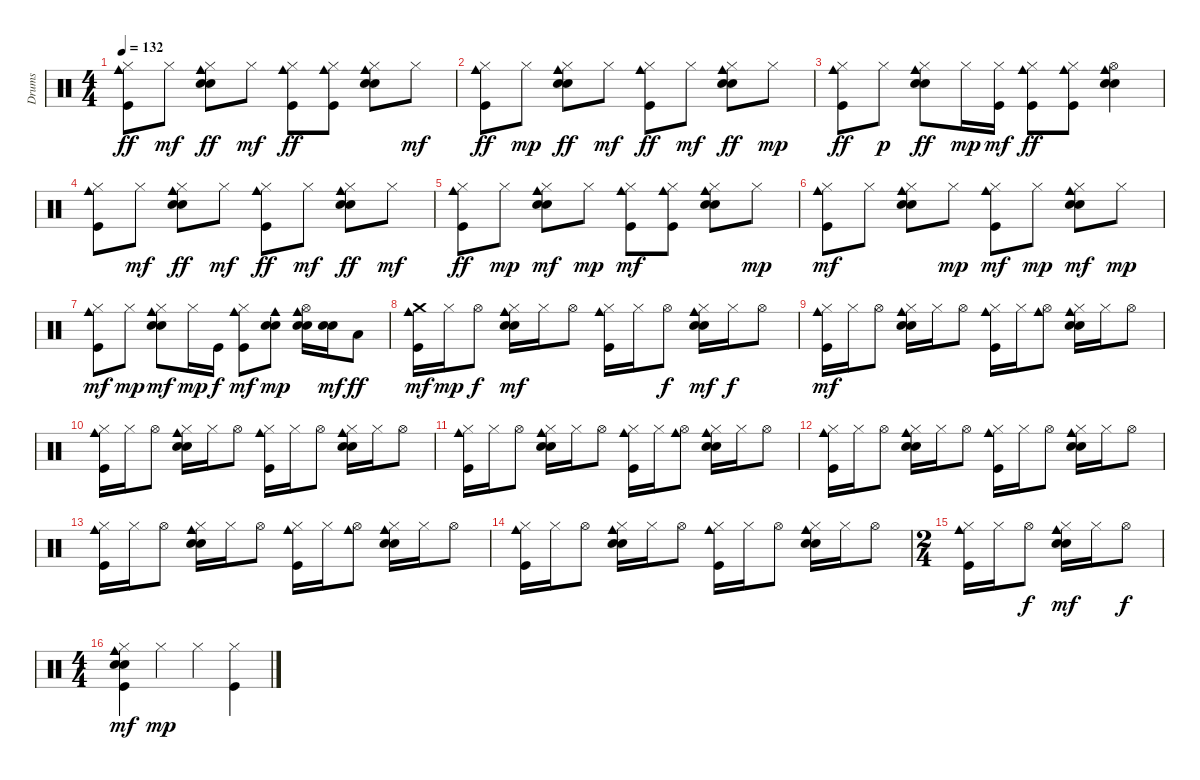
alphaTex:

\track ("Drums" "Drums") {instrument percussion}
\staff {score}
\articulation defaults
\ts (4 4)
\tempo 132
\clef neutral
\ks c
("Hi-Hat (closed)" "Kick (hit)" "Cowbell medium (hit)").8{dy ff} "Hi-Hat (closed)".8{dy mf} ("Hi-Hat (closed)" "Electric Snare (hit)" "Snare (hit) 2" "Cowbell medium (hit)").8{dy ff} "Hi-Hat (closed)".8{dy mf} ("Hi-Hat (closed)" "Kick (hit)" "Cowbell medium (hit)").8{dy ff} ("Hi-Hat (closed)" "Kick (hit)" "Cowbell medium (hit)").8 ("Hi-Hat (closed)" "Electric Snare (hit)" "Snare (hit) 2" "Cowbell medium (hit)").8 "Hi-Hat (closed)".8{dy mf} |
("Hi-Hat (closed)" "Kick (hit)" "Cowbell medium (hit)").8{dy ff} "Hi-Hat (closed)".8{dy mp} ("Hi-Hat (closed)" "Electric Snare (hit)" "Snare (hit) 2" "Cowbell medium (hit)").8{dy ff} "Hi-Hat (closed)".8{dy mf} ("Hi-Hat (closed)" "Kick (hit)" "Cowbell medium (hit)").8{dy ff} "Hi-Hat (closed)".8{dy mf} ("Hi-Hat (closed)" "Electric Snare (hit)" "Snare (hit) 2" "Cowbell medium (hit)").8{dy ff} "Hi-Hat (closed)".8{dy mp} |
("Hi-Hat (closed)" "Kick (hit)" "Cowbell medium (hit)").8{dy ff} "Hi-Hat (closed)".8{dy p} ("Hi-Hat (closed)" "Electric Snare (hit)" "Snare (hit) 2" "Cowbell medium (hit)").8{dy ff} "Hi-Hat (closed)".16{dy mp} ("Hi-Hat (closed)" "Kick (hit)").16{dy mf} ("Hi-Hat (closed)" "Kick (hit)" "Cowbell medium (hit)").8{dy ff} ("Hi-Hat (closed)" "Kick (hit)" "Cowbell medium (hit)").8 ("Electric Snare (hit)" "Snare (hit) 2" "Cowbell medium (hit)" "Hi-Hat (open)").4 |
("Hi-Hat (closed)" "Kick (hit)" "Cowbell medium (hit)").8 "Hi-Hat (closed)".8{dy mf} ("Hi-Hat (closed)" "Electric Snare (hit)" "Snare (hit) 2" "Cowbell medium (hit)").8{dy ff} "Hi-Hat (closed)".8{dy mf} ("Hi-Hat (closed)" "Kick (hit)" "Cowbell medium (hit)").8{dy ff} "Hi-Hat (closed)".8{dy mf} ("Hi-Hat (closed)" "Electric Snare (hit)" "Snare (hit) 2" "Cowbell medium (hit)").8{dy ff} "Hi-Hat (closed)".8{dy mf} |
("Hi-Hat (closed)" "Kick (hit)" "Cowbell medium (hit)").8{dy ff} "Hi-Hat (closed)".8{dy mp} ("Hi-Hat (closed)" "Electric Snare (hit)" "Snare (hit) 2" "Cowbell medium (hit)").8{dy mf} "Hi-Hat (closed)".8{dy mp} ("Hi-Hat (closed)" "Kick (hit)" "Cowbell medium (hit)").8{dy mf} ("Hi-Hat (closed)" "Kick (hit)" "Cowbell medium (hit)").8 ("Hi-Hat (closed)" "Electric Snare (hit)" "Snare (hit) 2" "Cowbell medium (hit)").8 "Hi-Hat (closed)".8{dy mp} |
("Hi-Hat (closed)" "Kick (hit)" "Cowbell medium (hit)").8{dy mf} "Hi-Hat (closed)".8 ("Hi-Hat (closed)" "Electric Snare (hit)" "Snare (hit) 2" "Cowbell medium (hit)").8 "Hi-Hat (closed)".8{dy mp} ("Hi-Hat (closed)" "Kick (hit)" "Cowbell medium (hit)").8{dy mf} "Hi-Hat (closed)".8{dy mp} ("Hi-Hat (closed)" "Electric Snare (hit)" "Snare (hit) 2" "Cowbell medium (hit)").8{dy mf} "Hi-Hat (closed)".8{dy mp} |
("Hi-Hat (closed)" "Kick (hit)" "Cowbell medium (hit)").8{dy mf} "Hi-Hat (closed)".8{dy mp} ("Hi-Hat (closed)" "Electric Snare (hit)" "Snare (hit) 2" "Cowbell medium (hit)").8{dy mf} "Hi-Hat (closed)".16{dy mp} "Kick (hit)".16{dy f} ("Hi-Hat (closed)" "Kick (hit)" "Cowbell medium (hit)").8{dy mf} ("Electric Snare (hit)" "Snare (hit) 2" "Cowbell medium (hit)").8{dy mp} ("Electric Snare (hit)" "Snare (hit) 2" "Cowbell medium (hit)" "Hi-Hat (open)").16 ("Electric Snare (hit)" "Snare (hit) 2").16{dy mf} "Low Tom (hit)".8{dy ff} |
("Kick (hit)" "Cowbell medium (hit)" "Crash medium (hit)").16{dy mf} "Hi-Hat (closed)".16{dy mp} "Hi-Hat (open)".8{dy f} ("Hi-Hat (closed)" "Electric Snare (hit)" "Snare (hit) 2" "Cowbell medium (hit)").16{dy mf} "Hi-Hat (closed)".16 "Hi-Hat (open)".8 ("Hi-Hat (closed)" "Kick (hit)" "Cowbell medium (hit)").16 "Hi-Hat (closed)".16 "Hi-Hat (open)".8{dy f} ("Hi-Hat (closed)" "Electric Snare (hit)" "Snare (hit) 2" "Cowbell medium (hit)").16{dy mf} "Hi-Hat (closed)".16{dy f} "Hi-Hat (open)".8 |
("Hi-Hat (closed)" "Kick (hit)" "Cowbell medium (hit)").16{dy mf} "Hi-Hat (closed)".16 "Hi-Hat (open)".8 ("Hi-Hat (closed)" "Electric Snare (hit)" "Snare (hit) 2" "Cowbell medium (hit)").16 "Hi-Hat (closed)".16 "Hi-Hat (open)".8 ("Hi-Hat (closed)" "Kick (hit)" "Cowbell medium (hit)").16 "Hi-Hat (closed)".16 ("Hi-Hat (open)" "Cowbell medium (hit)").8 ("Hi-Hat (closed)" "Electric Snare (hit)" "Snare (hit) 2" "Cowbell medium (hit)").16 "Hi-Hat (closed)".16 "Hi-Hat (open)".8 |
("Hi-Hat (closed)" "Kick (hit)" "Cowbell medium (hit)").16 "Hi-Hat (closed)".16 "Hi-Hat (open)".8 ("Hi-Hat (closed)" "Electric Snare (hit)" "Snare (hit) 2" "Cowbell medium (hit)").16 "Hi-Hat (closed)".16 "Hi-Hat (open)".8 ("Hi-Hat (closed)" "Kick (hit)" "Cowbell medium (hit)").16 "Hi-Hat (closed)".16 "Hi-Hat (open)".8 ("Hi-Hat (closed)" "Electric Snare (hit)" "Snare (hit) 2" "Cowbell medium (hit)").16 "Hi-Hat (closed)".16 "Hi-Hat (open)".8 |
("Hi-Hat (closed)" "Kick (hit)" "Cowbell medium (hit)").16 "Hi-Hat (closed)".16 "Hi-Hat (open)".8 ("Hi-Hat (closed)" "Electric Snare (hit)" "Snare (hit) 2" "Cowbell medium (hit)").16 "Hi-Hat (closed)".16 "Hi-Hat (open)".8 ("Hi-Hat (closed)" "Kick (hit)" "Cowbell medium (hit)").16 "Hi-Hat (closed)".16 ("Hi-Hat (open)" "Cowbell medium (hit)").8 ("Hi-Hat (closed)" "Electric Snare (hit)" "Snare (hit) 2" "Cowbell medium (hit)").16 "Hi-Hat (closed)".16 "Hi-Hat (open)".8 |
("Hi-Hat (closed)" "Kick (hit)" "Cowbell medium (hit)").16 "Hi-Hat (closed)".16 "Hi-Hat (open)".8 ("Hi-Hat (closed)" "Electric Snare (hit)" "Snare (hit) 2" "Cowbell medium (hit)").16 "Hi-Hat (closed)".16 "Hi-Hat (open)".8 ("Hi-Hat (closed)" "Kick (hit)" "Cowbell medium (hit)").16 "Hi-Hat (closed)".16 "Hi-Hat (open)".8 ("Hi-Hat (closed)" "Electric Snare (hit)" "Snare (hit) 2" "Cowbell medium (hit)").16 "Hi-Hat (closed)".16 "Hi-Hat (open)".8 |
("Hi-Hat (closed)" "Kick (hit)" "Cowbell medium (hit)").16 "Hi-Hat (closed)".16 "Hi-Hat (open)".8 ("Hi-Hat (closed)" "Electric Snare (hit)" "Snare (hit) 2" "Cowbell medium (hit)").16 "Hi-Hat (closed)".16 "Hi-Hat (open)".8 ("Hi-Hat (closed)" "Kick (hit)" "Cowbell medium (hit)").16 "Hi-Hat (closed)".16 ("Hi-Hat (open)" "Cowbell medium (hit)").8 ("Hi-Hat (closed)" "Electric Snare (hit)" "Snare (hit) 2" "Cowbell medium (hit)").16 "Hi-Hat (closed)".16 "Hi-Hat (open)".8 |
("Hi-Hat (closed)" "Kick (hit)" "Cowbell medium (hit)").16 "Hi-Hat (closed)".16 "Hi-Hat (open)".8 ("Hi-Hat (closed)" "Electric Snare (hit)" "Snare (hit) 2" "Cowbell medium (hit)").16 "Hi-Hat (closed)".16 "Hi-Hat (open)".8 ("Hi-Hat (closed)" "Kick (hit)" "Cowbell medium (hit)").16 "Hi-Hat (closed)".16 "Hi-Hat (open)".8 ("Hi-Hat (closed)" "Electric Snare (hit)" "Snare (hit) 2" "Cowbell medium (hit)").16 "Hi-Hat (closed)".16 "Hi-Hat (open)".8 |
\ts (2 4)
("Hi-Hat (closed)" "Kick (hit)" "Cowbell medium (hit)").16 "Hi-Hat (closed)".16 "Hi-Hat (open)".8{dy f} ("Hi-Hat (closed)" "Electric Snare (hit)" "Snare (hit) 2" "Cowbell medium (hit)").16{dy mf} "Hi-Hat (closed)".16 "Hi-Hat (open)".8{dy f} |
\ts (4 4)
("Hi-Hat (closed)" "Kick (hit)" "Electric Snare (hit)" "Snare (hit) 2" "Cowbell medium (hit)").4{dy mf} "Hi-Hat (closed)".4{dy mp} "Hi-Hat (closed)".4 ("Hi-Hat (closed)" "Kick (hit)").4
